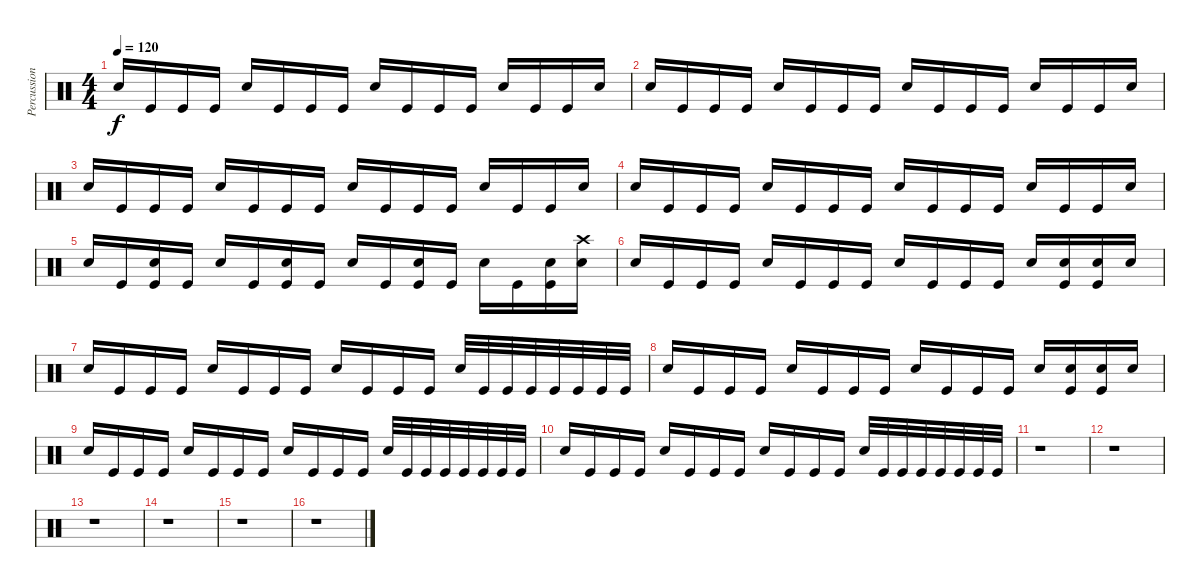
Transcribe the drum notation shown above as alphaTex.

\track ("Percussion" "Percussion") {instrument percussion}
\staff {score}
\articulation defaults
\ts (4 4)
\tempo 120
\clef neutral
\ks c "Snare (hit) 2".16{dy f} "Kick (hit)".16 "Kick (hit)".16 "Kick (hit)".16 "Snare (hit) 2".16 "Kick (hit)".16 "Kick (hit)".16 "Kick (hit)".16 "Snare (hit) 2".16 "Kick (hit)".16 "Kick (hit)".16 "Kick (hit)".16 "Snare (hit) 2".16 "Kick (hit)".16 "Kick (hit)".16 "Snare (hit) 2".16
|
"Snare (hit) 2".16 "Kick (hit)".16 "Kick (hit)".16 "Kick (hit)".16 "Snare (hit) 2".16 "Kick (hit)".16 "Kick (hit)".16 "Kick (hit)".16 "Snare (hit) 2".16 "Kick (hit)".16 "Kick (hit)".16 "Kick (hit)".16 "Snare (hit) 2".16 "Kick (hit)".16 "Kick (hit)".16 "Snare (hit) 2".16 |
"Snare (hit) 2".16 "Kick (hit)".16 "Kick (hit)".16 "Kick (hit)".16 "Snare (hit) 2".16 "Kick (hit)".16 "Kick (hit)".16 "Kick (hit)".16 "Snare (hit) 2".16 "Kick (hit)".16 "Kick (hit)".16 "Kick (hit)".16 "Snare (hit) 2".16 "Kick (hit)".16 "Kick (hit)".16 "Snare (hit) 2".16 |
"Snare (hit) 2".16 "Kick (hit)".16 "Kick (hit)".16 "Kick (hit)".16 "Snare (hit) 2".16 "Kick (hit)".16 "Kick (hit)".16 "Kick (hit)".16 "Snare (hit) 2".16 "Kick (hit)".16 "Kick (hit)".16 "Kick (hit)".16 "Snare (hit) 2".16 "Kick (hit)".16 "Kick (hit)".16 "Snare (hit) 2".16 |
"Snare (hit) 2".16 "Kick (hit)".16 ("Kick (hit)" "Snare (hit) 2").16 "Kick (hit)".16 "Snare (hit) 2".16 "Kick (hit)".16 ("Kick (hit)" "Snare (hit) 2").16 "Kick (hit)".16 "Snare (hit) 2".16 "Kick (hit)".16 ("Kick (hit)" "Snare (hit) 2").16 "Kick (hit)".16 "Snare (hit) 2".16 "Kick (hit)".16 ("Kick (hit)" "Snare (hit) 2").16 ("Snare (hit) 2" "Crash high (hit)").16 |
"Snare (hit) 2".16 "Kick (hit)".16 "Kick (hit)".16 "Kick (hit)".16 "Snare (hit) 2".16 "Kick (hit)".16 "Kick (hit)".16 "Kick (hit)".16 "Snare (hit) 2".16 "Kick (hit)".16 "Kick (hit)".16 "Kick (hit)".16 "Snare (hit) 2".16 ("Kick (hit)" "Snare (hit) 2").16 ("Kick (hit)" "Snare (hit) 2").16 "Snare (hit) 2".16 |
"Snare (hit) 2".16 "Kick (hit)".16 "Kick (hit)".16 "Kick (hit)".16 "Snare (hit) 2".16 "Kick (hit)".16 "Kick (hit)".16 "Kick (hit)".16 "Snare (hit) 2".16 "Kick (hit)".16 "Kick (hit)".16 "Kick (hit)".16 "Snare (hit) 2".32 "Kick (hit)".32 "Kick (hit)".32 "Kick (hit)".32 "Kick (hit)".32 "Kick (hit)".32 "Kick (hit)".32 "Kick (hit)".32 |
"Snare (hit) 2".16 "Kick (hit)".16 "Kick (hit)".16 "Kick (hit)".16 "Snare (hit) 2".16 "Kick (hit)".16 "Kick (hit)".16 "Kick (hit)".16 "Snare (hit) 2".16 "Kick (hit)".16 "Kick (hit)".16 "Kick (hit)".16 "Snare (hit) 2".16 ("Kick (hit)" "Snare (hit) 2").16 ("Kick (hit)" "Snare (hit) 2").16 "Snare (hit) 2".16 |
"Snare (hit) 2".16 "Kick (hit)".16 "Kick (hit)".16 "Kick (hit)".16 "Snare (hit) 2".16 "Kick (hit)".16 "Kick (hit)".16 "Kick (hit)".16 "Snare (hit) 2".16 "Kick (hit)".16 "Kick (hit)".16 "Kick (hit)".16 "Snare (hit) 2".32 "Kick (hit)".32 "Kick (hit)".32 "Kick (hit)".32 "Kick (hit)".32 "Kick (hit)".32 "Kick (hit)".32 "Kick (hit)".32 |
"Snare (hit) 2".16 "Kick (hit)".16 "Kick (hit)".16 "Kick (hit)".16 "Snare (hit) 2".16 "Kick (hit)".16 "Kick (hit)".16 "Kick (hit)".16 "Snare (hit) 2".16 "Kick (hit)".16 "Kick (hit)".16 "Kick (hit)".16 "Snare (hit) 2".32 "Kick (hit)".32 "Kick (hit)".32 "Kick (hit)".32 "Kick (hit)".32 "Kick (hit)".32 "Kick (hit)".32 "Kick (hit)".32 |
r.1 |
r.1 |
r.1 |
r.1 |
r.1 |
r.1
